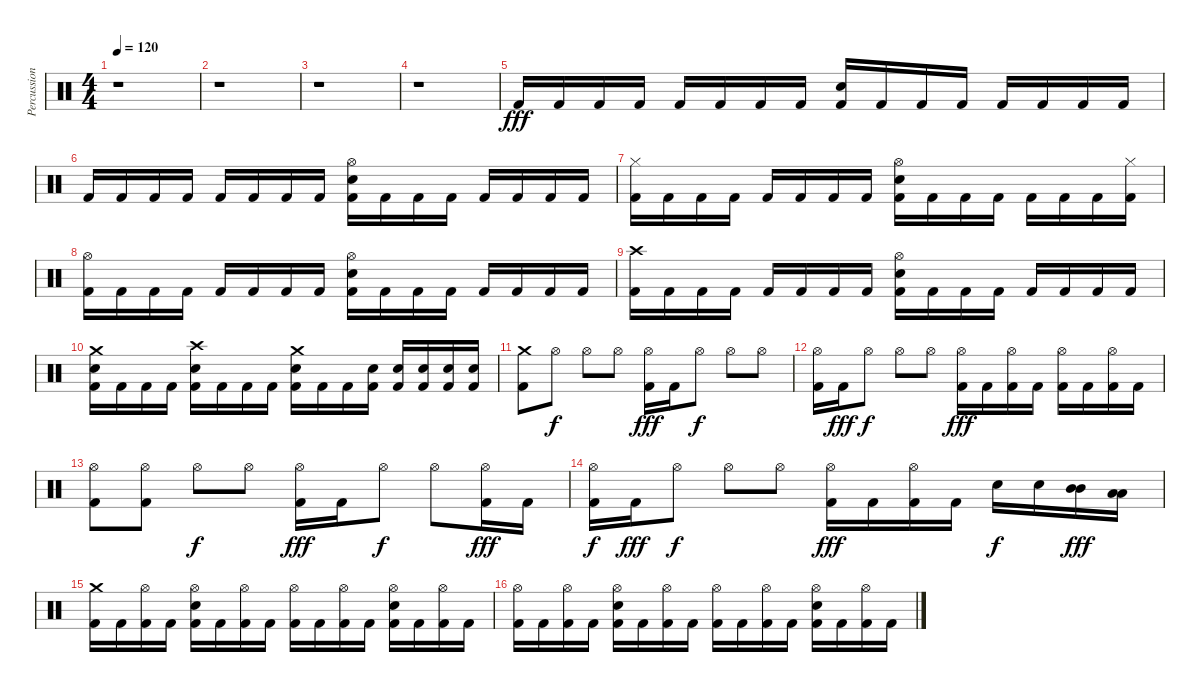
\track ("Percussion" "Percussion") {instrument percussion}
\staff {score}
\articulation defaults
\ts (4 4)
\tempo 120
\clef neutral
\ks c
r.1{dy fff} |
r.1 |
r.1 |
r.1 |
"Kick (hit) 2".16 "Kick (hit) 2".16 "Kick (hit) 2".16 "Kick (hit) 2".16 "Kick (hit) 2".16 "Kick (hit) 2".16 "Kick (hit) 2".16 "Kick (hit) 2".16 ("Snare (hit) 2" "Kick (hit) 2").16 "Kick (hit) 2".16 "Kick (hit) 2".16 "Kick (hit) 2".16 "Kick (hit) 2".16 "Kick (hit) 2".16 "Kick (hit) 2".16 "Kick (hit) 2".16 |
"Kick (hit) 2".16 "Kick (hit) 2".16 "Kick (hit) 2".16 "Kick (hit) 2".16 "Kick (hit) 2".16 "Kick (hit) 2".16 "Kick (hit) 2".16 "Kick (hit) 2".16 ("Hi-Hat (open)" "Snare (hit) 2" "Kick (hit) 2").16 "Kick (hit) 2".16 "Kick (hit) 2".16 "Kick (hit) 2".16 "Kick (hit) 2".16 "Kick (hit) 2".16 "Kick (hit) 2".16 "Kick (hit) 2".16 |
("Hi-Hat (closed)" "Kick (hit) 2").16 "Kick (hit) 2".16 "Kick (hit) 2".16 "Kick (hit) 2".16 "Kick (hit) 2".16 "Kick (hit) 2".16 "Kick (hit) 2".16 "Kick (hit) 2".16 ("Hi-Hat (open)" "Snare (hit) 2" "Kick (hit) 2").16 "Kick (hit) 2".16 "Kick (hit) 2".16 "Kick (hit) 2".16 "Kick (hit) 2".16 "Kick (hit) 2".16 "Kick (hit) 2".16 ("Hi-Hat (closed)" "Kick (hit) 2").16 |
("Hi-Hat (open)" "Kick (hit) 2").16 "Kick (hit) 2".16 "Kick (hit) 2".16 "Kick (hit) 2".16 "Kick (hit) 2".16 "Kick (hit) 2".16 "Kick (hit) 2".16 "Kick (hit) 2".16 ("Hi-Hat (open)" "Snare (hit) 2" "Kick (hit) 2").16 "Kick (hit) 2".16 "Kick (hit) 2".16 "Kick (hit) 2".16 "Kick (hit) 2".16 "Kick (hit) 2".16 "Kick (hit) 2".16 "Kick (hit) 2".16 |
("Crash high (hit)" "Kick (hit) 2").16 "Kick (hit) 2".16 "Kick (hit) 2".16 "Kick (hit) 2".16 "Kick (hit) 2".16 "Kick (hit) 2".16 "Kick (hit) 2".16 "Kick (hit) 2".16 ("Hi-Hat (open)" "Snare (hit) 2" "Kick (hit) 2").16 "Kick (hit) 2".16 "Kick (hit) 2".16 "Kick (hit) 2".16 "Kick (hit) 2".16 "Kick (hit) 2".16 "Kick (hit) 2".16 "Kick (hit) 2".16 |
("Crash medium (hit)" "Snare (hit) 2" "Kick (hit) 2").16 "Kick (hit) 2".16 "Kick (hit) 2".16 "Kick (hit) 2".16 ("Crash high (hit)" "Snare (hit) 2" "Kick (hit) 2").16 "Kick (hit) 2".16 "Kick (hit) 2".16 "Kick (hit) 2".16 ("Crash medium (hit)" "Snare (hit) 2" "Kick (hit) 2").16 "Kick (hit) 2".16 "Kick (hit) 2".16 ("Snare (hit) 2" "Kick (hit) 2").16 ("Snare (hit) 2" "Kick (hit) 2").16 ("Snare (hit) 2" "Kick (hit) 2").16 ("Snare (hit) 2" "Kick (hit) 2").16 ("Snare (hit) 2" "Kick (hit) 2").16 |
("Crash medium (hit)" "Kick (hit) 2").8 "Hi-Hat (open)".8{dy f} "Hi-Hat (open)".8 "Hi-Hat (open)".8 ("Hi-Hat (open)" "Kick (hit) 2").16{dy fff} "Kick (hit) 2".16 "Hi-Hat (open)".8{dy f} "Hi-Hat (open)".8 "Hi-Hat (open)".8 |
("Hi-Hat (open)" "Kick (hit) 2").16 "Kick (hit) 2".16{dy fff} "Hi-Hat (open)".8{dy f} "Hi-Hat (open)".8 "Hi-Hat (open)".8 ("Hi-Hat (open)" "Kick (hit) 2").16{dy fff} "Kick (hit) 2".16 ("Hi-Hat (open)" "Kick (hit) 2").16 "Kick (hit) 2".16 ("Hi-Hat (open)" "Kick (hit) 2").16 "Kick (hit) 2".16 ("Hi-Hat (open)" "Kick (hit) 2").16 "Kick (hit) 2".16 |
("Hi-Hat (open)" "Kick (hit) 2").8 ("Hi-Hat (open)" "Kick (hit) 2").8 "Hi-Hat (open)".8{dy f} "Hi-Hat (open)".8 ("Hi-Hat (open)" "Kick (hit) 2").16{dy fff} "Kick (hit) 2".16 "Hi-Hat (open)".8{dy f} "Hi-Hat (open)".8 ("Hi-Hat (open)" "Kick (hit) 2").16{dy fff} "Kick (hit) 2".16 |
("Hi-Hat (open)" "Kick (hit) 2").16{dy f} "Kick (hit) 2".16{dy fff} "Hi-Hat (open)".8{dy f} "Hi-Hat (open)".8 "Hi-Hat (open)".8 ("Hi-Hat (open)" "Kick (hit) 2").16{dy fff} "Kick (hit) 2".16 ("Hi-Hat (open)" "Kick (hit) 2").16 "Kick (hit) 2".16 "Snare (hit) 2".16{dy f} "Snare (hit) 2".16 ("Mid Tom (hit)" "Mid Tom (hit)").16{dy fff} ("Low Tom (hit)" "Low Tom (hit)").16 |
("Crash medium (hit)" "Kick (hit) 2").16 "Kick (hit) 2".16 ("Hi-Hat (open)" "Kick (hit) 2").16 "Kick (hit) 2".16 ("Hi-Hat (open)" "Snare (hit) 2" "Kick (hit) 2").16 "Kick (hit) 2".16 ("Hi-Hat (open)" "Kick (hit) 2").16 "Kick (hit) 2".16 ("Hi-Hat (open)" "Kick (hit) 2").16 "Kick (hit) 2".16 ("Hi-Hat (open)" "Kick (hit) 2").16 "Kick (hit) 2".16 ("Hi-Hat (open)" "Snare (hit) 2" "Kick (hit) 2").16 "Kick (hit) 2".16 ("Hi-Hat (open)" "Kick (hit) 2").16 "Kick (hit) 2".16 |
("Hi-Hat (open)" "Kick (hit) 2").16 "Kick (hit) 2".16 ("Hi-Hat (open)" "Kick (hit) 2").16 "Kick (hit) 2".16 ("Hi-Hat (open)" "Snare (hit) 2" "Kick (hit) 2").16 "Kick (hit) 2".16 ("Hi-Hat (open)" "Kick (hit) 2").16 "Kick (hit) 2".16 ("Hi-Hat (open)" "Kick (hit) 2").16 "Kick (hit) 2".16 ("Hi-Hat (open)" "Kick (hit) 2").16 "Kick (hit) 2".16 ("Hi-Hat (open)" "Snare (hit) 2" "Kick (hit) 2").16 "Kick (hit) 2".16 ("Hi-Hat (open)" "Kick (hit) 2").16 "Kick (hit) 2".16
